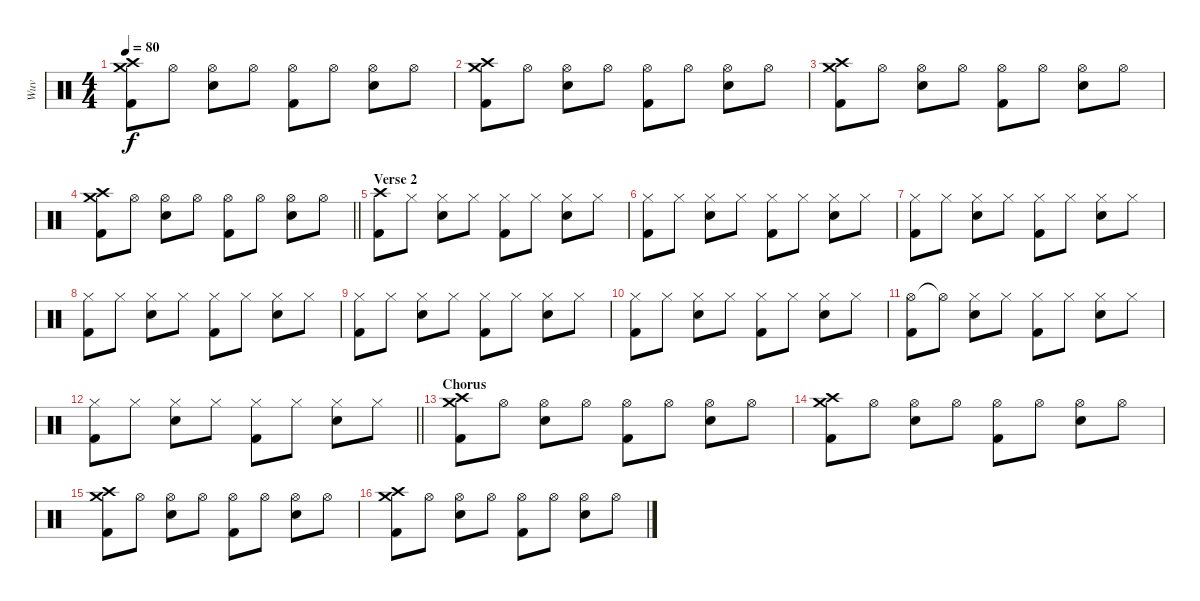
\track ("Wuv" "Wuv") {instrument percussion}
\staff {score}
\articulation defaults
\ts (4 4)
\tempo 80
\clef neutral
\ks c
("Crash high (hit)" "Crash medium (hit)" "Kick (hit) 2").8{dy f} "Hi-Hat (open)".8 ("Hi-Hat (open)" "Electric Snare (hit)").8 "Hi-Hat (open)".8 ("Hi-Hat (open)" "Kick (hit) 2").8 "Hi-Hat (open)".8 ("Hi-Hat (open)" "Electric Snare (hit)").8 "Hi-Hat (open)".8 |
("Crash high (hit)" "Crash medium (hit)" "Kick (hit) 2").8 "Hi-Hat (open)".8 ("Hi-Hat (open)" "Electric Snare (hit)").8 "Hi-Hat (open)".8 ("Hi-Hat (open)" "Kick (hit) 2").8 "Hi-Hat (open)".8 ("Hi-Hat (open)" "Electric Snare (hit)").8 "Hi-Hat (open)".8 |
("Crash high (hit)" "Crash medium (hit)" "Kick (hit) 2").8 "Hi-Hat (open)".8 ("Hi-Hat (open)" "Electric Snare (hit)").8 "Hi-Hat (open)".8 ("Hi-Hat (open)" "Kick (hit) 2").8 "Hi-Hat (open)".8 ("Hi-Hat (open)" "Electric Snare (hit)").8 "Hi-Hat (open)".8 |
\barLineRight lightlight
("Crash high (hit)" "Crash medium (hit)" "Kick (hit) 2").8 "Hi-Hat (open)".8 ("Hi-Hat (open)" "Electric Snare (hit)").8 "Hi-Hat (open)".8 ("Hi-Hat (open)" "Kick (hit) 2").8 "Hi-Hat (open)".8 ("Hi-Hat (open)" "Electric Snare (hit)").8 "Hi-Hat (open)".8 |
\section ("" "Verse 2")
("Crash high (hit)" "Kick (hit) 2").8 "Hi-Hat (closed)".8 ("Hi-Hat (closed)" "Electric Snare (hit)").8 "Hi-Hat (closed)".8 ("Hi-Hat (closed)" "Kick (hit) 2").8 "Hi-Hat (closed)".8 ("Hi-Hat (closed)" "Electric Snare (hit)").8 "Hi-Hat (closed)".8 |
("Hi-Hat (closed)" "Kick (hit) 2").8 "Hi-Hat (closed)".8 ("Hi-Hat (closed)" "Electric Snare (hit)").8 "Hi-Hat (closed)".8 ("Hi-Hat (closed)" "Kick (hit) 2").8 "Hi-Hat (closed)".8 ("Hi-Hat (closed)" "Electric Snare (hit)").8 "Hi-Hat (closed)".8 |
("Hi-Hat (closed)" "Kick (hit) 2").8 "Hi-Hat (closed)".8 ("Hi-Hat (closed)" "Electric Snare (hit)").8 "Hi-Hat (closed)".8 ("Hi-Hat (closed)" "Kick (hit) 2").8 "Hi-Hat (closed)".8 ("Hi-Hat (closed)" "Electric Snare (hit)").8 "Hi-Hat (closed)".8 |
("Hi-Hat (closed)" "Kick (hit) 2").8 "Hi-Hat (closed)".8 ("Hi-Hat (closed)" "Electric Snare (hit)").8 "Hi-Hat (closed)".8 ("Hi-Hat (closed)" "Kick (hit) 2").8 "Hi-Hat (closed)".8 ("Hi-Hat (closed)" "Electric Snare (hit)").8 "Hi-Hat (closed)".8 |
("Hi-Hat (closed)" "Kick (hit) 2").8 "Hi-Hat (closed)".8 ("Hi-Hat (closed)" "Electric Snare (hit)").8 "Hi-Hat (closed)".8 ("Hi-Hat (closed)" "Kick (hit) 2").8 "Hi-Hat (closed)".8 ("Hi-Hat (closed)" "Electric Snare (hit)").8 "Hi-Hat (closed)".8 |
("Hi-Hat (closed)" "Kick (hit) 2").8 "Hi-Hat (closed)".8 ("Hi-Hat (closed)" "Electric Snare (hit)").8 "Hi-Hat (closed)".8 ("Hi-Hat (closed)" "Kick (hit) 2").8 "Hi-Hat (closed)".8 ("Hi-Hat (closed)" "Electric Snare (hit)").8 "Hi-Hat (closed)".8 |
("Hi-Hat (open)" "Kick (hit) 2").8 "Hi-Hat (open)"{t}.8 ("Hi-Hat (closed)" "Electric Snare (hit)").8 "Hi-Hat (closed)".8 ("Hi-Hat (closed)" "Kick (hit) 2").8 "Hi-Hat (closed)".8 ("Hi-Hat (closed)" "Electric Snare (hit)").8 "Hi-Hat (closed)".8 |
\barLineRight lightlight
("Hi-Hat (closed)" "Kick (hit) 2").8 "Hi-Hat (closed)".8 ("Hi-Hat (closed)" "Electric Snare (hit)").8 "Hi-Hat (closed)".8 ("Hi-Hat (closed)" "Kick (hit) 2").8 "Hi-Hat (closed)".8 ("Hi-Hat (closed)" "Electric Snare (hit)").8 "Hi-Hat (closed)".8 |
\section ("" "Chorus")
("Crash high (hit)" "Crash medium (hit)" "Kick (hit) 2").8 "Hi-Hat (open)".8 ("Hi-Hat (open)" "Electric Snare (hit)").8 "Hi-Hat (open)".8 ("Hi-Hat (open)" "Kick (hit) 2").8 "Hi-Hat (open)".8 ("Hi-Hat (open)" "Electric Snare (hit)").8 "Hi-Hat (open)".8 |
("Crash high (hit)" "Crash medium (hit)" "Kick (hit) 2").8 "Hi-Hat (open)".8 ("Hi-Hat (open)" "Electric Snare (hit)").8 "Hi-Hat (open)".8 ("Hi-Hat (open)" "Kick (hit) 2").8 "Hi-Hat (open)".8 ("Hi-Hat (open)" "Electric Snare (hit)").8 "Hi-Hat (open)".8 |
("Crash high (hit)" "Crash medium (hit)" "Kick (hit) 2").8 "Hi-Hat (open)".8 ("Hi-Hat (open)" "Electric Snare (hit)").8 "Hi-Hat (open)".8 ("Hi-Hat (open)" "Kick (hit) 2").8 "Hi-Hat (open)".8 ("Hi-Hat (open)" "Electric Snare (hit)").8 "Hi-Hat (open)".8 |
("Crash high (hit)" "Crash medium (hit)" "Kick (hit) 2").8 "Hi-Hat (open)".8 ("Hi-Hat (open)" "Electric Snare (hit)").8 "Hi-Hat (open)".8 ("Hi-Hat (open)" "Kick (hit) 2").8 "Hi-Hat (open)".8 ("Hi-Hat (open)" "Electric Snare (hit)").8 "Hi-Hat (open)".8
